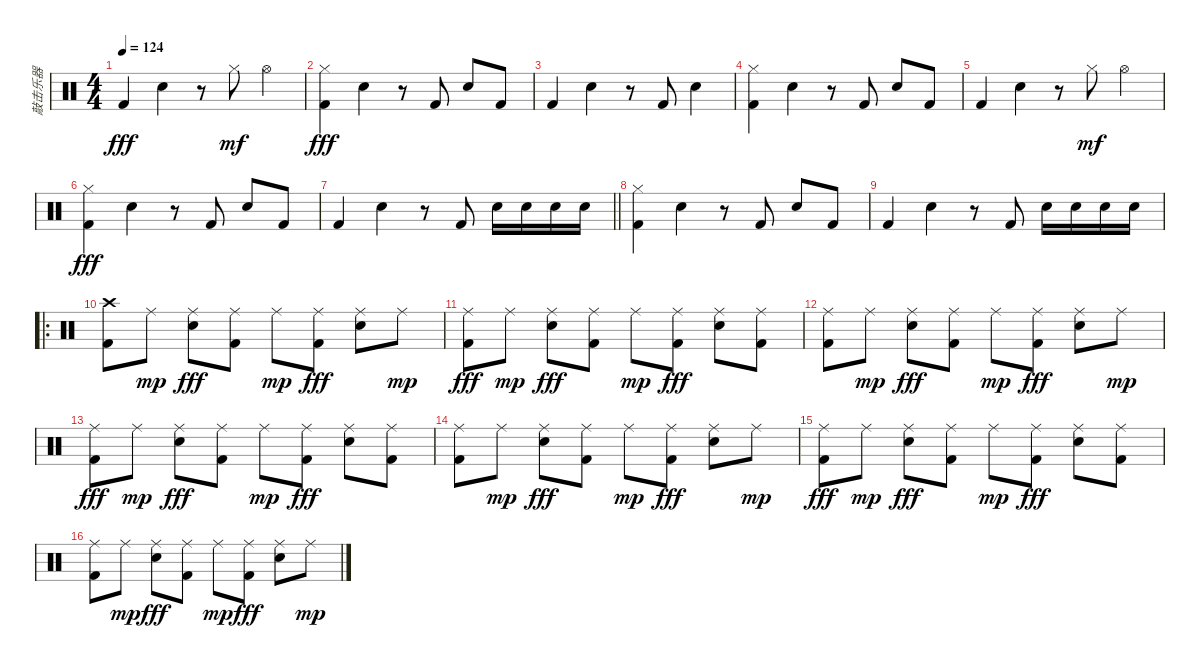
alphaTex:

\track ("敲击乐器" "敲击乐器") {instrument percussion}
\staff {score}
\articulation defaults
\ts (4 4)
\tempo 124
\clef neutral
\ks c "Kick (hit) 2".4{dy fff} "Snare (hit) 2".4
r.8 "Hi-Hat (closed)".8{dy mf} "Hi-Hat (open)".4 |
("Hi-Hat (closed)" "Kick (hit) 2").4{dy fff} "Snare (hit) 2".4 r.8 "Kick (hit) 2".8 "Snare (hit) 2".8 "Kick (hit) 2".8 |
"Kick (hit) 2".4 "Snare (hit) 2".4 r.8 "Kick (hit) 2".8 "Snare (hit) 2".4 |
("Hi-Hat (closed)" "Kick (hit) 2").4 "Snare (hit) 2".4 r.8 "Kick (hit) 2".8 "Snare (hit) 2".8 "Kick (hit) 2".8 |
"Kick (hit) 2".4 "Snare (hit) 2".4 r.8 "Hi-Hat (closed)".8{dy mf} "Hi-Hat (open)".4 |
("Hi-Hat (closed)" "Kick (hit) 2").4{dy fff} "Snare (hit) 2".4 r.8 "Kick (hit) 2".8 "Snare (hit) 2".8 "Kick (hit) 2".8 |
\barLineRight lightlight "Kick (hit) 2".4 "Snare (hit) 2".4
r.8 "Kick (hit) 2".8 "Snare (hit) 2".16 "Snare (hit) 2".16 "Snare (hit) 2".16 "Snare (hit) 2".16 |
("Hi-Hat (closed)" "Kick (hit) 2").4 "Snare (hit) 2".4 r.8 "Kick (hit) 2".8 "Snare (hit) 2".8 "Kick (hit) 2".8 |
"Kick (hit) 2".4 "Snare (hit) 2".4 r.8 "Kick (hit) 2".8 "Snare (hit) 2".16 "Snare (hit) 2".16 "Snare (hit) 2".16 "Snare (hit) 2".16 |
\ro
("Crash high (hit)" "Kick (hit) 2").8 "Ride (middle)".8{dy mp} ("Ride (middle)" "Snare (hit) 2").8{dy fff} ("Ride (middle)" "Kick (hit) 2").8 "Ride (middle)".8{dy mp} ("Ride (middle)" "Kick (hit) 2").8{dy fff} ("Ride (middle)" "Snare (hit) 2").8 "Ride (middle)".8{dy mp} |
("Ride (middle)" "Kick (hit) 2").8{dy fff} "Ride (middle)".8{dy mp} ("Ride (middle)" "Snare (hit) 2").8{dy fff} ("Ride (middle)" "Kick (hit) 2").8 "Ride (middle)".8{dy mp} ("Ride (middle)" "Kick (hit) 2").8{dy fff} ("Ride (middle)" "Snare (hit) 2").8 ("Ride (middle)" "Kick (hit) 2").8 |
("Ride (middle)" "Kick (hit) 2").8 "Ride (middle)".8{dy mp} ("Ride (middle)" "Snare (hit) 2").8{dy fff} ("Ride (middle)" "Kick (hit) 2").8 "Ride (middle)".8{dy mp} ("Ride (middle)" "Kick (hit) 2").8{dy fff} ("Ride (middle)" "Snare (hit) 2").8 "Ride (middle)".8{dy mp} |
("Ride (middle)" "Kick (hit) 2").8{dy fff} "Ride (middle)".8{dy mp} ("Ride (middle)" "Snare (hit) 2").8{dy fff} ("Ride (middle)" "Kick (hit) 2").8 "Ride (middle)".8{dy mp} ("Ride (middle)" "Kick (hit) 2").8{dy fff} ("Ride (middle)" "Snare (hit) 2").8 ("Ride (middle)" "Kick (hit) 2").8 |
("Ride (middle)" "Kick (hit) 2").8 "Ride (middle)".8{dy mp} ("Ride (middle)" "Snare (hit) 2").8{dy fff} ("Ride (middle)" "Kick (hit) 2").8 "Ride (middle)".8{dy mp} ("Ride (middle)" "Kick (hit) 2").8{dy fff} ("Ride (middle)" "Snare (hit) 2").8 "Ride (middle)".8{dy mp} |
("Ride (middle)" "Kick (hit) 2").8{dy fff} "Ride (middle)".8{dy mp} ("Ride (middle)" "Snare (hit) 2").8{dy fff} ("Ride (middle)" "Kick (hit) 2").8 "Ride (middle)".8{dy mp} ("Ride (middle)" "Kick (hit) 2").8{dy fff} ("Ride (middle)" "Snare (hit) 2").8 ("Ride (middle)" "Kick (hit) 2").8 |
("Ride (middle)" "Kick (hit) 2").8 "Ride (middle)".8{dy mp} ("Ride (middle)" "Snare (hit) 2").8{dy fff} ("Ride (middle)" "Kick (hit) 2").8 "Ride (middle)".8{dy mp} ("Ride (middle)" "Kick (hit) 2").8{dy fff} ("Ride (middle)" "Snare (hit) 2").8 "Ride (middle)".8{dy mp}
